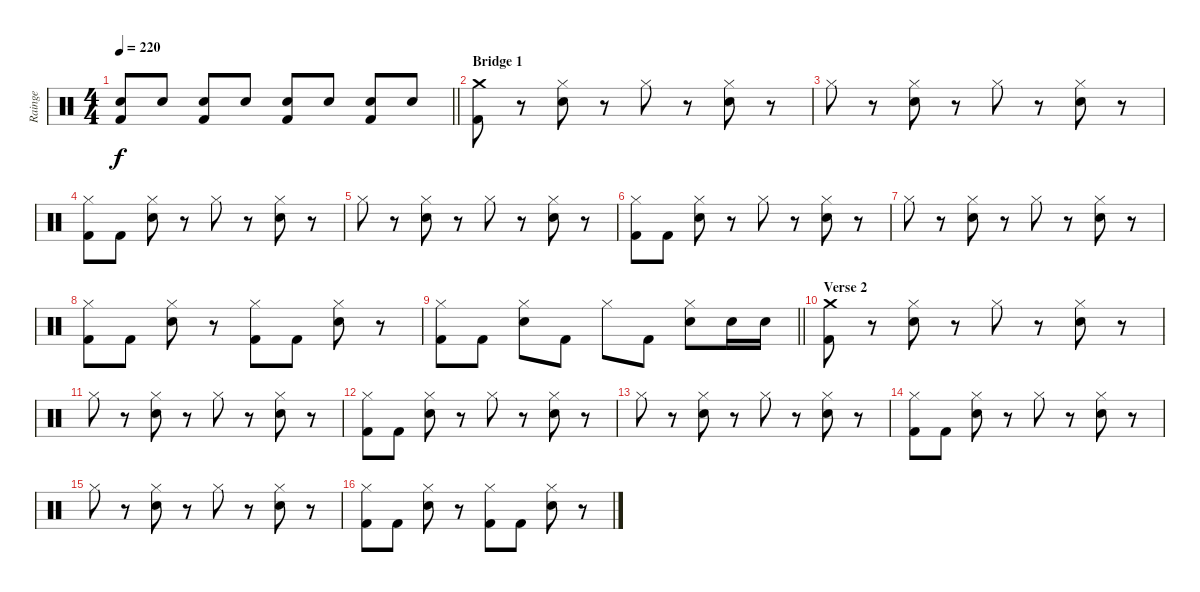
\track ("Rainge" "Rainge") {instrument percussion}
\staff {score}
\articulation defaults
\ts (4 4)
\tempo 220
\clef neutral
\barLineRight lightlight
\ks c
("Electric Snare (hit)" "Kick (hit) 2").8{dy f} "Electric Snare (hit)".8 ("Electric Snare (hit)" "Kick (hit) 2").8 "Electric Snare (hit)".8 ("Electric Snare (hit)" "Kick (hit) 2").8 "Electric Snare (hit)".8 ("Electric Snare (hit)" "Kick (hit) 2").8 "Electric Snare (hit)".8 |
\section ("" "Bridge 1")
("Crash medium (hit)" "Kick (hit) 2").8 r.8 ("Hi-Hat (closed)" "Electric Snare (hit)").8 r.8 "Hi-Hat (closed)".8 r.8 ("Hi-Hat (closed)" "Electric Snare (hit)").8 r.8 |
"Hi-Hat (closed)".8 r.8 ("Hi-Hat (closed)" "Electric Snare (hit)").8 r.8 "Hi-Hat (closed)".8 r.8 ("Hi-Hat (closed)" "Electric Snare (hit)").8 r.8 |
("Hi-Hat (closed)" "Kick (hit) 2").8 "Kick (hit) 2".8 ("Hi-Hat (closed)" "Electric Snare (hit)").8 r.8 "Hi-Hat (closed)".8 r.8 ("Hi-Hat (closed)" "Electric Snare (hit)").8 r.8 |
"Hi-Hat (closed)".8 r.8 ("Hi-Hat (closed)" "Electric Snare (hit)").8 r.8 "Hi-Hat (closed)".8 r.8 ("Hi-Hat (closed)" "Electric Snare (hit)").8 r.8 |
("Hi-Hat (closed)" "Kick (hit) 2").8 "Kick (hit) 2".8 ("Hi-Hat (closed)" "Electric Snare (hit)").8 r.8 "Hi-Hat (closed)".8 r.8 ("Hi-Hat (closed)" "Electric Snare (hit)").8 r.8 |
"Hi-Hat (closed)".8 r.8 ("Hi-Hat (closed)" "Electric Snare (hit)").8 r.8 "Hi-Hat (closed)".8 r.8 ("Hi-Hat (closed)" "Electric Snare (hit)").8 r.8 |
("Hi-Hat (closed)" "Kick (hit) 2").8 "Kick (hit) 2".8 ("Hi-Hat (closed)" "Electric Snare (hit)").8 r.8 ("Hi-Hat (closed)" "Kick (hit) 2").8 "Kick (hit) 2".8 ("Hi-Hat (closed)" "Electric Snare (hit)").8 r.8 |
\barLineRight lightlight
("Hi-Hat (closed)" "Kick (hit) 2").8 "Kick (hit) 2".8 ("Hi-Hat (closed)" "Electric Snare (hit)").8 "Kick (hit) 2".8 "Hi-Hat (closed)".8 "Kick (hit) 2".8 ("Hi-Hat (closed)" "Electric Snare (hit)").8 "Electric Snare (hit)".16 "Electric Snare (hit)".16 |
\section ("" "Verse 2")
("Crash medium (hit)" "Kick (hit) 2").8 r.8 ("Hi-Hat (closed)" "Electric Snare (hit)").8 r.8 "Hi-Hat (closed)".8 r.8 ("Hi-Hat (closed)" "Electric Snare (hit)").8 r.8 |
"Hi-Hat (closed)".8 r.8 ("Hi-Hat (closed)" "Electric Snare (hit)").8 r.8 "Hi-Hat (closed)".8 r.8 ("Hi-Hat (closed)" "Electric Snare (hit)").8 r.8 |
("Hi-Hat (closed)" "Kick (hit) 2").8 "Kick (hit) 2".8 ("Hi-Hat (closed)" "Electric Snare (hit)").8 r.8 "Hi-Hat (closed)".8 r.8 ("Hi-Hat (closed)" "Electric Snare (hit)").8 r.8 |
"Hi-Hat (closed)".8 r.8 ("Hi-Hat (closed)" "Electric Snare (hit)").8 r.8 "Hi-Hat (closed)".8 r.8 ("Hi-Hat (closed)" "Electric Snare (hit)").8 r.8 |
("Hi-Hat (closed)" "Kick (hit) 2").8 "Kick (hit) 2".8 ("Hi-Hat (closed)" "Electric Snare (hit)").8 r.8 "Hi-Hat (closed)".8 r.8 ("Hi-Hat (closed)" "Electric Snare (hit)").8 r.8 |
"Hi-Hat (closed)".8 r.8 ("Hi-Hat (closed)" "Electric Snare (hit)").8 r.8 "Hi-Hat (closed)".8 r.8 ("Hi-Hat (closed)" "Electric Snare (hit)").8 r.8 |
("Hi-Hat (closed)" "Kick (hit) 2").8 "Kick (hit) 2".8 ("Hi-Hat (closed)" "Electric Snare (hit)").8 r.8 ("Hi-Hat (closed)" "Kick (hit) 2").8 "Kick (hit) 2".8 ("Hi-Hat (closed)" "Electric Snare (hit)").8 r.8
